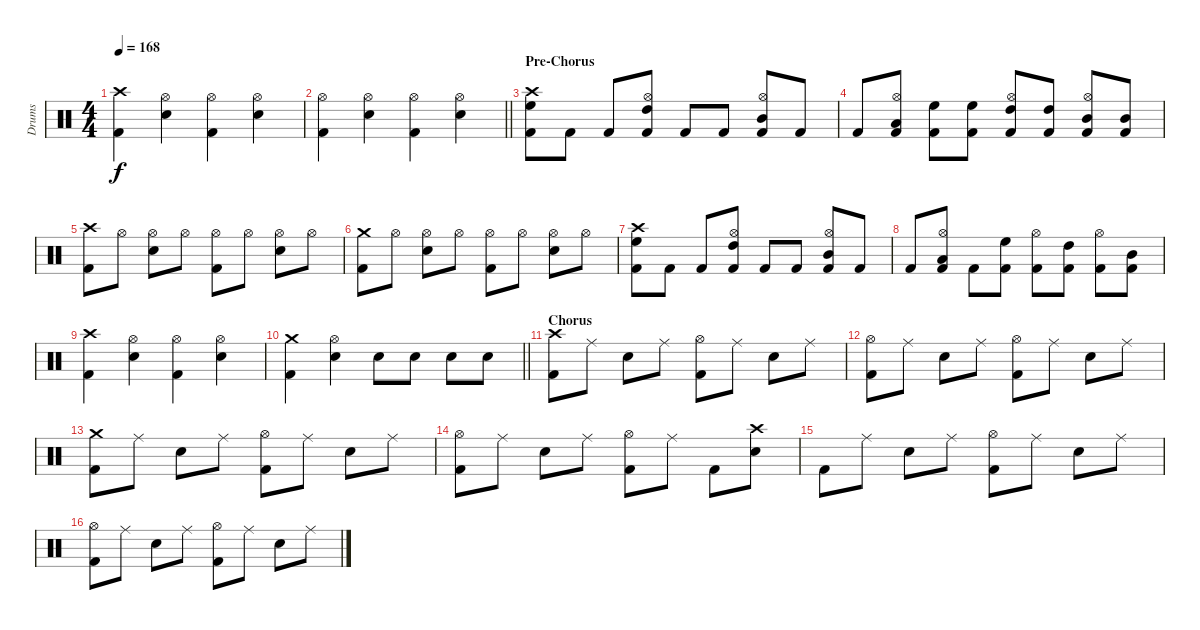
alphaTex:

\track ("Drums" "Drums") {instrument percussion}
\staff {score}
\articulation defaults
\ts (4 4)
\tempo 168
\clef neutral
\ks c
("Crash high (hit)" "Kick (hit) 2").4{dy f} ("Hi-Hat (open)" "Snare (hit) 2").4 ("Hi-Hat (open)" "Kick (hit) 2").4 ("Hi-Hat (open)" "Snare (hit) 2").4 |
\barLineRight lightlight
("Hi-Hat (open)" "Kick (hit) 2").4 ("Hi-Hat (open)" "Snare (hit) 2").4 ("Hi-Hat (open)" "Kick (hit) 2").4 ("Hi-Hat (open)" "Snare (hit) 2").4 |
\section ("" "Pre-Chorus")
("Crash high (hit)" "High Floor Tom (hit)" "Kick (hit) 2").8 "Kick (hit) 2".8 "Kick (hit) 2".8 ("Hi-Hat (open)" "High Tom (hit)" "Kick (hit) 2").8 "Kick (hit) 2".8 "Kick (hit) 2".8 ("Hi-Hat (open)" "Mid Tom (hit)" "Kick (hit) 2").8 "Kick (hit) 2".8 |
"Kick (hit) 2".8 ("Hi-Hat (open)" "Low Tom (hit)" "Kick (hit) 2").8 ("High Floor Tom (hit)" "Kick (hit) 2").8 ("High Floor Tom (hit)" "Kick (hit) 2").8 ("Hi-Hat (open)" "High Tom (hit)" "Kick (hit) 2").8 ("High Tom (hit)" "Kick (hit) 2").8 ("Hi-Hat (open)" "Mid Tom (hit)" "Kick (hit) 2").8 ("Mid Tom (hit)" "Kick (hit) 2").8 |
("Crash high (hit)" "Kick (hit) 2").8 "Hi-Hat (open)".8 ("Hi-Hat (open)" "Snare (hit) 2").8 "Hi-Hat (open)".8 ("Hi-Hat (open)" "Kick (hit) 2").8 "Hi-Hat (open)".8 ("Hi-Hat (open)" "Snare (hit) 2").8 "Hi-Hat (open)".8 |
("Crash medium (hit)" "Kick (hit) 2").8 "Hi-Hat (open)".8 ("Hi-Hat (open)" "Snare (hit) 2").8 "Hi-Hat (open)".8 ("Hi-Hat (open)" "Kick (hit) 2").8 "Hi-Hat (open)".8 ("Hi-Hat (open)" "Snare (hit) 2").8 "Hi-Hat (open)".8 |
("Crash high (hit)" "High Floor Tom (hit)" "Kick (hit) 2").8 "Kick (hit) 2".8 "Kick (hit) 2".8 ("Hi-Hat (open)" "High Tom (hit)" "Kick (hit) 2").8 "Kick (hit) 2".8 "Kick (hit) 2".8 ("Hi-Hat (open)" "Mid Tom (hit)" "Kick (hit) 2").8 "Kick (hit) 2".8 |
"Kick (hit) 2".8 ("Hi-Hat (open)" "Low Tom (hit)" "Kick (hit) 2").8 "Kick (hit) 2".8 ("High Floor Tom (hit)" "Kick (hit) 2").8 ("Hi-Hat (open)" "Kick (hit) 2").8 ("High Tom (hit)" "Kick (hit) 2").8 ("Hi-Hat (open)" "Kick (hit) 2").8 ("Mid Tom (hit)" "Kick (hit) 2").8 |
("Crash high (hit)" "Kick (hit) 2").4 ("Hi-Hat (open)" "Snare (hit) 2").4 ("Hi-Hat (open)" "Kick (hit) 2").4 ("Hi-Hat (open)" "Snare (hit) 2").4 |
\barLineRight lightlight
("Crash medium (hit)" "Kick (hit) 2").4 ("Hi-Hat (open)" "Snare (hit) 2").4 "Snare (hit) 2".8 "Snare (hit) 2".8 "Snare (hit) 2".8 "Snare (hit) 2".8 |
\section ("" "Chorus")
("Crash high (hit)" "Kick (hit) 2").8 "Ride (middle)".8 "Snare (hit) 2".8 "Ride (middle)".8 ("Hi-Hat (open)" "Kick (hit) 2").8 "Ride (middle)".8 "Snare (hit) 2".8 "Ride (middle)".8 |
("Hi-Hat (open)" "Kick (hit) 2").8 "Ride (middle)".8 "Snare (hit) 2".8 "Ride (middle)".8 ("Hi-Hat (open)" "Kick (hit) 2").8 "Ride (middle)".8 "Snare (hit) 2".8 "Ride (middle)".8 |
("Crash medium (hit)" "Kick (hit) 2").8 "Ride (middle)".8 "Snare (hit) 2".8 "Ride (middle)".8 ("Hi-Hat (open)" "Kick (hit) 2").8 "Ride (middle)".8 "Snare (hit) 2".8 "Ride (middle)".8 |
("Hi-Hat (open)" "Kick (hit) 2").8 "Ride (middle)".8 "Snare (hit) 2".8 "Ride (middle)".8 ("Hi-Hat (open)" "Kick (hit) 2").8 "Ride (middle)".8 "Kick (hit) 2".8 ("Crash high (hit)" "Snare (hit) 2").8 |
"Kick (hit) 2".8 "Ride (middle)".8 "Snare (hit) 2".8 "Ride (middle)".8 ("Hi-Hat (open)" "Kick (hit) 2").8 "Ride (middle)".8 "Snare (hit) 2".8 "Ride (middle)".8 |
("Hi-Hat (open)" "Kick (hit) 2").8 "Ride (middle)".8 "Snare (hit) 2".8 "Ride (middle)".8 ("Hi-Hat (open)" "Kick (hit) 2").8 "Ride (middle)".8 "Snare (hit) 2".8 "Ride (middle)".8
